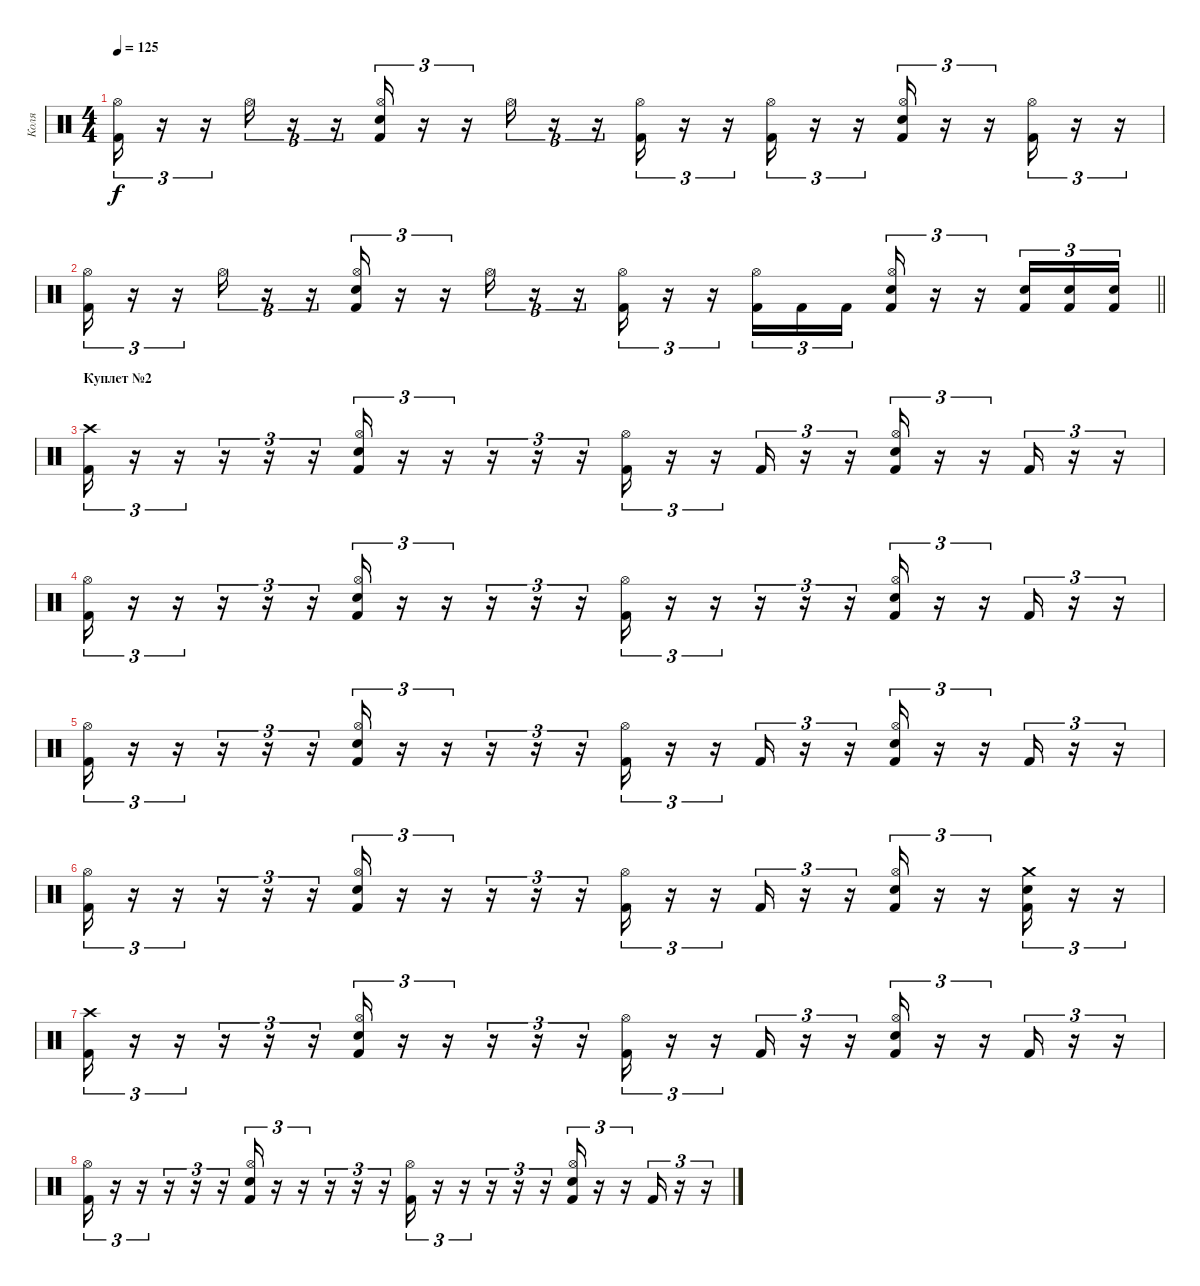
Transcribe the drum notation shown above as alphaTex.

\track ("Коля" "Коля") {instrument percussion}
\staff {score}
\articulation defaults
\ts (4 4)
\tempo 125
\clef neutral
\ks c
("Kick (hit) 2" "Hi-Hat (open)").16{tu (3 2) dy f} r.16{tu (3 2)} r.16{tu (3 2)} "Hi-Hat (open)".16{tu (3 2)} r.16{tu (3 2)} r.16{tu (3 2)} ("Kick (hit) 2" "Snare (hit) 2" "Hi-Hat (open)").16{tu (3 2)} r.16{tu (3 2)} r.16{tu (3 2)} "Hi-Hat (open)".16{tu (3 2)} r.16{tu (3 2)} r.16{tu (3 2)} ("Kick (hit) 2" "Hi-Hat (open)").16{tu (3 2)} r.16{tu (3 2)} r.16{tu (3 2)} ("Kick (hit) 2" "Hi-Hat (open)").16{tu (3 2)} r.16{tu (3 2)} r.16{tu (3 2)} ("Kick (hit) 2" "Snare (hit) 2" "Hi-Hat (open)").16{tu (3 2)} r.16{tu (3 2)} r.16{tu (3 2)} ("Kick (hit) 2" "Hi-Hat (open)").16{tu (3 2)} r.16{tu (3 2)} r.16{tu (3 2)} |
\barLineRight lightlight
("Kick (hit) 2" "Hi-Hat (open)").16{tu (3 2)} r.16{tu (3 2)} r.16{tu (3 2)} "Hi-Hat (open)".16{tu (3 2)} r.16{tu (3 2)} r.16{tu (3 2)} ("Kick (hit) 2" "Snare (hit) 2" "Hi-Hat (open)").16{tu (3 2)} r.16{tu (3 2)} r.16{tu (3 2)} "Hi-Hat (open)".16{tu (3 2)} r.16{tu (3 2)} r.16{tu (3 2)} ("Kick (hit) 2" "Hi-Hat (open)").16{tu (3 2)} r.16{tu (3 2)} r.16{tu (3 2)} ("Kick (hit) 2" "Hi-Hat (open)").16{tu (3 2)} "Kick (hit) 2".16{tu (3 2)} "Kick (hit) 2".16{tu (3 2)} ("Kick (hit) 2" "Snare (hit) 2" "Hi-Hat (open)").16{tu (3 2)} r.16{tu (3 2)} r.16{tu (3 2)} ("Kick (hit) 2" "Snare (hit) 2").16{tu (3 2)} ("Kick (hit) 2" "Snare (hit) 2").16{tu (3 2)} ("Kick (hit) 2" "Snare (hit) 2").16{tu (3 2)} |
\section ("" "Куплет №2")
("Kick (hit) 2" "Crash high (hit)").16{tu (3 2)} r.16{tu (3 2)} r.16{tu (3 2)} r.16{tu (3 2)} r.16{tu (3 2)} r.16{tu (3 2)} ("Kick (hit) 2" "Snare (hit) 2" "Hi-Hat (open)").16{tu (3 2)} r.16{tu (3 2)} r.16{tu (3 2)} r.16{tu (3 2)} r.16{tu (3 2)} r.16{tu (3 2)} ("Kick (hit) 2" "Hi-Hat (open)").16{tu (3 2)} r.16{tu (3 2)} r.16{tu (3 2)} "Kick (hit) 2".16{tu (3 2)} r.16{tu (3 2)} r.16{tu (3 2)} ("Kick (hit) 2" "Snare (hit) 2" "Hi-Hat (open)").16{tu (3 2)} r.16{tu (3 2)} r.16{tu (3 2)} "Kick (hit) 2".16{tu (3 2)} r.16{tu (3 2)} r.16{tu (3 2)} |
("Kick (hit) 2" "Hi-Hat (open)").16{tu (3 2)} r.16{tu (3 2)} r.16{tu (3 2)} r.16{tu (3 2)} r.16{tu (3 2)} r.16{tu (3 2)} ("Kick (hit) 2" "Snare (hit) 2" "Hi-Hat (open)").16{tu (3 2)} r.16{tu (3 2)} r.16{tu (3 2)} r.16{tu (3 2)} r.16{tu (3 2)} r.16{tu (3 2)} ("Kick (hit) 2" "Hi-Hat (open)").16{tu (3 2)} r.16{tu (3 2)} r.16{tu (3 2)} r.16{tu (3 2)} r.16{tu (3 2)} r.16{tu (3 2)} ("Kick (hit) 2" "Snare (hit) 2" "Hi-Hat (open)").16{tu (3 2)} r.16{tu (3 2)} r.16{tu (3 2)} "Kick (hit) 2".16{tu (3 2)} r.16{tu (3 2)} r.16{tu (3 2)} |
("Kick (hit) 2" "Hi-Hat (open)").16{tu (3 2)} r.16{tu (3 2)} r.16{tu (3 2)} r.16{tu (3 2)} r.16{tu (3 2)} r.16{tu (3 2)} ("Kick (hit) 2" "Snare (hit) 2" "Hi-Hat (open)").16{tu (3 2)} r.16{tu (3 2)} r.16{tu (3 2)} r.16{tu (3 2)} r.16{tu (3 2)} r.16{tu (3 2)} ("Kick (hit) 2" "Hi-Hat (open)").16{tu (3 2)} r.16{tu (3 2)} r.16{tu (3 2)} "Kick (hit) 2".16{tu (3 2)} r.16{tu (3 2)} r.16{tu (3 2)} ("Kick (hit) 2" "Snare (hit) 2" "Hi-Hat (open)").16{tu (3 2)} r.16{tu (3 2)} r.16{tu (3 2)} "Kick (hit) 2".16{tu (3 2)} r.16{tu (3 2)} r.16{tu (3 2)} |
("Kick (hit) 2" "Hi-Hat (open)").16{tu (3 2)} r.16{tu (3 2)} r.16{tu (3 2)} r.16{tu (3 2)} r.16{tu (3 2)} r.16{tu (3 2)} ("Kick (hit) 2" "Snare (hit) 2" "Hi-Hat (open)").16{tu (3 2)} r.16{tu (3 2)} r.16{tu (3 2)} r.16{tu (3 2)} r.16{tu (3 2)} r.16{tu (3 2)} ("Kick (hit) 2" "Hi-Hat (open)").16{tu (3 2)} r.16{tu (3 2)} r.16{tu (3 2)} "Kick (hit) 2".16{tu (3 2)} r.16{tu (3 2)} r.16{tu (3 2)} ("Kick (hit) 2" "Snare (hit) 2" "Hi-Hat (open)").16{tu (3 2)} r.16{tu (3 2)} r.16{tu (3 2)} ("Kick (hit) 2" "Snare (hit) 2" "Crash medium (hit)").16{tu (3 2)} r.16{tu (3 2)} r.16{tu (3 2)} |
("Kick (hit) 2" "Crash high (hit)").16{tu (3 2)} r.16{tu (3 2)} r.16{tu (3 2)} r.16{tu (3 2)} r.16{tu (3 2)} r.16{tu (3 2)} ("Kick (hit) 2" "Snare (hit) 2" "Hi-Hat (open)").16{tu (3 2)} r.16{tu (3 2)} r.16{tu (3 2)} r.16{tu (3 2)} r.16{tu (3 2)} r.16{tu (3 2)} ("Kick (hit) 2" "Hi-Hat (open)").16{tu (3 2)} r.16{tu (3 2)} r.16{tu (3 2)} "Kick (hit) 2".16{tu (3 2)} r.16{tu (3 2)} r.16{tu (3 2)} ("Kick (hit) 2" "Snare (hit) 2" "Hi-Hat (open)").16{tu (3 2)} r.16{tu (3 2)} r.16{tu (3 2)} "Kick (hit) 2".16{tu (3 2)} r.16{tu (3 2)} r.16{tu (3 2)} |
("Kick (hit) 2" "Hi-Hat (open)").16{tu (3 2)} r.16{tu (3 2)} r.16{tu (3 2)} r.16{tu (3 2)} r.16{tu (3 2)} r.16{tu (3 2)} ("Kick (hit) 2" "Snare (hit) 2" "Hi-Hat (open)").16{tu (3 2)} r.16{tu (3 2)} r.16{tu (3 2)} r.16{tu (3 2)} r.16{tu (3 2)} r.16{tu (3 2)} ("Kick (hit) 2" "Hi-Hat (open)").16{tu (3 2)} r.16{tu (3 2)} r.16{tu (3 2)} r.16{tu (3 2)} r.16{tu (3 2)} r.16{tu (3 2)} ("Kick (hit) 2" "Snare (hit) 2" "Hi-Hat (open)").16{tu (3 2)} r.16{tu (3 2)} r.16{tu (3 2)} "Kick (hit) 2".16{tu (3 2)} r.16{tu (3 2)} r.16{tu (3 2)}
